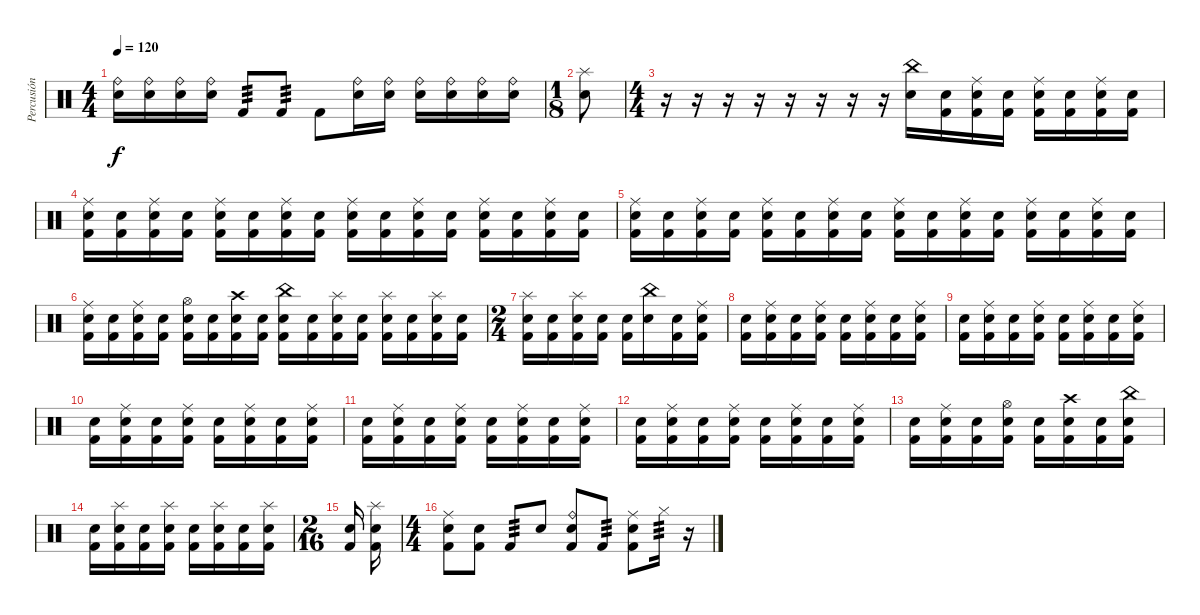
\track ("Percusión" "Percusión") {instrument percussion}
\staff {score}
\articulation defaults
\ts (4 4)
\tempo 120
\clef neutral
\ks c
("Electric Snare (hit)" "Ride (bell)").16{dy f} ("Electric Snare (hit)" "Ride (bell)").16 ("Electric Snare (hit)" "Ride (bell)").16 ("Electric Snare (hit)" "Ride (bell)").16 "Kick (hit) 2".8{tp 3} "Kick (hit) 2".8{tp 3} "Kick (hit) 2".8 ("Electric Snare (hit)" "Ride (bell)").16 ("Electric Snare (hit)" "Ride (bell)").16 ("Electric Snare (hit)" "Ride (bell)").16 ("Electric Snare (hit)" "Ride (bell)").16 ("Electric Snare (hit)" "Ride (bell)").16 ("Electric Snare (hit)" "Ride (bell)").16 |
\ts (1 8)
("Electric Snare (hit)" "Splash (hit)").8 |
\ts (4 4)
r.16 r.16 r.16 r.16 r.16 r.16 r.16 r.16 ("Electric Snare (hit)" "China (hit)").16 ("Kick (hit) 2" "Electric Snare (hit)").16 ("Kick (hit) 2" "Electric Snare (hit)" "Ride (middle)").16 ("Kick (hit) 2" "Electric Snare (hit)").16 ("Kick (hit) 2" "Electric Snare (hit)" "Ride (middle)").16 ("Kick (hit) 2" "Electric Snare (hit)").16 ("Kick (hit) 2" "Electric Snare (hit)" "Ride (middle)").16 ("Kick (hit) 2" "Electric Snare (hit)").16 |
("Kick (hit) 2" "Electric Snare (hit)" "Ride (middle)").16 ("Kick (hit) 2" "Electric Snare (hit)").16 ("Kick (hit) 2" "Electric Snare (hit)" "Ride (middle)").16 ("Kick (hit) 2" "Electric Snare (hit)").16 ("Kick (hit) 2" "Electric Snare (hit)" "Ride (middle)").16 ("Kick (hit) 2" "Electric Snare (hit)").16 ("Kick (hit) 2" "Electric Snare (hit)" "Ride (middle)").16 ("Kick (hit) 2" "Electric Snare (hit)").16 ("Kick (hit) 2" "Electric Snare (hit)" "Ride (middle)").16 ("Kick (hit) 2" "Electric Snare (hit)").16 ("Kick (hit) 2" "Electric Snare (hit)" "Ride (middle)").16 ("Kick (hit) 2" "Electric Snare (hit)").16 ("Kick (hit) 2" "Electric Snare (hit)" "Ride (middle)").16 ("Kick (hit) 2" "Electric Snare (hit)").16 ("Kick (hit) 2" "Electric Snare (hit)" "Ride (middle)").16 ("Kick (hit) 2" "Electric Snare (hit)").16 |
("Kick (hit) 2" "Electric Snare (hit)" "Ride (middle)").16 ("Kick (hit) 2" "Electric Snare (hit)").16 ("Kick (hit) 2" "Electric Snare (hit)" "Ride (middle)").16 ("Kick (hit) 2" "Electric Snare (hit)").16 ("Kick (hit) 2" "Electric Snare (hit)" "Ride (middle)").16 ("Kick (hit) 2" "Electric Snare (hit)").16 ("Kick (hit) 2" "Electric Snare (hit)" "Ride (middle)").16 ("Kick (hit) 2" "Electric Snare (hit)").16 ("Kick (hit) 2" "Electric Snare (hit)" "Ride (middle)").16 ("Kick (hit) 2" "Electric Snare (hit)").16 ("Kick (hit) 2" "Electric Snare (hit)" "Ride (middle)").16 ("Kick (hit) 2" "Electric Snare (hit)").16 ("Kick (hit) 2" "Electric Snare (hit)" "Ride (middle)").16 ("Kick (hit) 2" "Electric Snare (hit)").16 ("Kick (hit) 2" "Electric Snare (hit)" "Ride (middle)").16 ("Kick (hit) 2" "Electric Snare (hit)").16 |
("Kick (hit) 2" "Electric Snare (hit)" "Ride (middle)").16 ("Kick (hit) 2" "Electric Snare (hit)").16 ("Kick (hit) 2" "Electric Snare (hit)" "Ride (middle)").16 ("Kick (hit) 2" "Electric Snare (hit)").16 ("Kick (hit) 2" "Electric Snare (hit)" "Hi-Hat (open)").16 ("Kick (hit) 2" "Electric Snare (hit)").16 ("Kick (hit) 2" "Electric Snare (hit)" "Crash high (hit)").16 ("Kick (hit) 2" "Electric Snare (hit)").16 ("Kick (hit) 2" "Electric Snare (hit)" "China (hit)").16 ("Kick (hit) 2" "Electric Snare (hit)").16 ("Kick (hit) 2" "Electric Snare (hit)" "Splash (hit)").16 ("Kick (hit) 2" "Electric Snare (hit)").16 ("Kick (hit) 2" "Electric Snare (hit)" "Splash (hit)").16 ("Kick (hit) 2" "Electric Snare (hit)").16 ("Kick (hit) 2" "Electric Snare (hit)" "Splash (hit)").16 ("Kick (hit) 2" "Electric Snare (hit)").16 |
\ts (2 4)
("Kick (hit) 2" "Electric Snare (hit)" "Splash (hit)").16 ("Kick (hit) 2" "Electric Snare (hit)").16 ("Kick (hit) 2" "Electric Snare (hit)" "Splash (hit)").16 ("Kick (hit) 2" "Electric Snare (hit)").16 ("Kick (hit) 2" "Electric Snare (hit)").16 ("Electric Snare (hit)" "China (hit)").16 ("Kick (hit) 2" "Electric Snare (hit)").16 ("Kick (hit) 2" "Electric Snare (hit)" "Ride (middle)").16 |
("Kick (hit) 2" "Electric Snare (hit)").16 ("Kick (hit) 2" "Electric Snare (hit)" "Ride (middle)").16 ("Kick (hit) 2" "Electric Snare (hit)").16 ("Kick (hit) 2" "Electric Snare (hit)" "Ride (middle)").16 ("Kick (hit) 2" "Electric Snare (hit)").16 ("Kick (hit) 2" "Electric Snare (hit)" "Ride (middle)").16 ("Kick (hit) 2" "Electric Snare (hit)").16 ("Kick (hit) 2" "Electric Snare (hit)" "Ride (middle)").16 |
("Kick (hit) 2" "Electric Snare (hit)").16 ("Kick (hit) 2" "Electric Snare (hit)" "Ride (middle)").16 ("Kick (hit) 2" "Electric Snare (hit)").16 ("Kick (hit) 2" "Electric Snare (hit)" "Ride (middle)").16 ("Kick (hit) 2" "Electric Snare (hit)").16 ("Kick (hit) 2" "Electric Snare (hit)" "Ride (middle)").16 ("Kick (hit) 2" "Electric Snare (hit)").16 ("Kick (hit) 2" "Electric Snare (hit)" "Ride (middle)").16 |
("Kick (hit) 2" "Electric Snare (hit)").16 ("Kick (hit) 2" "Electric Snare (hit)" "Ride (middle)").16 ("Kick (hit) 2" "Electric Snare (hit)").16 ("Kick (hit) 2" "Electric Snare (hit)" "Ride (middle)").16 ("Kick (hit) 2" "Electric Snare (hit)").16 ("Kick (hit) 2" "Electric Snare (hit)" "Ride (middle)").16 ("Kick (hit) 2" "Electric Snare (hit)").16 ("Kick (hit) 2" "Electric Snare (hit)" "Ride (middle)").16 |
("Kick (hit) 2" "Electric Snare (hit)").16 ("Kick (hit) 2" "Electric Snare (hit)" "Ride (middle)").16 ("Kick (hit) 2" "Electric Snare (hit)").16 ("Kick (hit) 2" "Electric Snare (hit)" "Ride (middle)").16 ("Kick (hit) 2" "Electric Snare (hit)").16 ("Kick (hit) 2" "Electric Snare (hit)" "Ride (middle)").16 ("Kick (hit) 2" "Electric Snare (hit)").16 ("Kick (hit) 2" "Electric Snare (hit)" "Ride (middle)").16 |
("Kick (hit) 2" "Electric Snare (hit)").16 ("Kick (hit) 2" "Electric Snare (hit)" "Ride (middle)").16 ("Kick (hit) 2" "Electric Snare (hit)").16 ("Kick (hit) 2" "Electric Snare (hit)" "Ride (middle)").16 ("Kick (hit) 2" "Electric Snare (hit)").16 ("Kick (hit) 2" "Electric Snare (hit)" "Ride (middle)").16 ("Kick (hit) 2" "Electric Snare (hit)").16 ("Kick (hit) 2" "Electric Snare (hit)" "Ride (middle)").16 |
("Kick (hit) 2" "Electric Snare (hit)").16 ("Kick (hit) 2" "Electric Snare (hit)" "Ride (middle)").16 ("Kick (hit) 2" "Electric Snare (hit)").16 ("Kick (hit) 2" "Electric Snare (hit)" "Hi-Hat (open)").16 ("Kick (hit) 2" "Electric Snare (hit)").16 ("Kick (hit) 2" "Electric Snare (hit)" "Crash high (hit)").16 ("Kick (hit) 2" "Electric Snare (hit)").16 ("Kick (hit) 2" "Electric Snare (hit)" "China (hit)").16 |
("Kick (hit) 2" "Electric Snare (hit)").16 ("Kick (hit) 2" "Electric Snare (hit)" "Splash (hit)").16 ("Kick (hit) 2" "Electric Snare (hit)").16 ("Kick (hit) 2" "Electric Snare (hit)" "Splash (hit)").16 ("Kick (hit) 2" "Electric Snare (hit)").16 ("Kick (hit) 2" "Electric Snare (hit)" "Splash (hit)").16 ("Kick (hit) 2" "Electric Snare (hit)").16 ("Kick (hit) 2" "Electric Snare (hit)" "Splash (hit)").16 |
\ts (2 16)
("Kick (hit) 2" "Electric Snare (hit)").16 ("Kick (hit) 2" "Electric Snare (hit)" "Splash (hit)").16 |
\ts (4 4)
("Kick (hit) 2" "Electric Snare (hit)" "Ride (middle)").8 ("Kick (hit) 2" "Electric Snare (hit)").8 "Kick (hit) 2".8{tp 3} "Electric Snare (hit)".8 ("Kick (hit) 2" "Electric Snare (hit)" "Ride (bell)").8 "Kick (hit) 2".8{tp 3} ("Electric Snare (hit)" "Kick (hit) 2" "Ride (middle)").8 "Hi-Hat (closed)".16{tp 3} r.16
